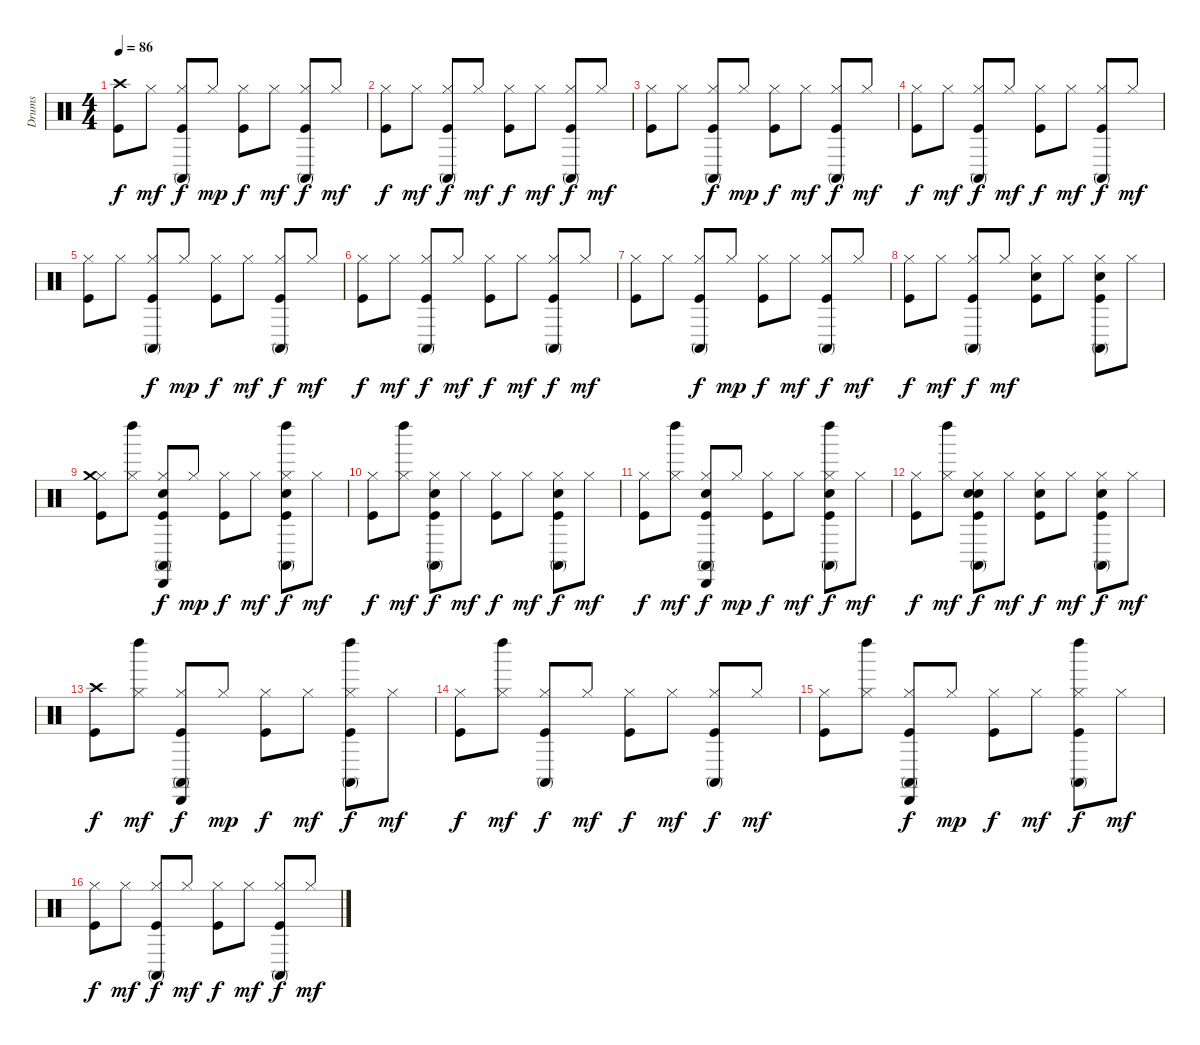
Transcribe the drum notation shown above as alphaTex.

\track ("Drums" "Drums") {instrument percussion}
\staff {score}
\articulation defaults
\ts (4 4)
\tempo 86
\clef neutral
\ks c
("Crash high (hit)" "Kick (hit)").8{dy f} "Hi-Hat (closed)".8{dy mf} ("Conga high (mute)" "Hi-Hat (closed)" "Kick (hit)").8{dy f} "Hi-Hat (closed)".8{dy mp} ("Hi-Hat (closed)" "Kick (hit)").8{dy f} "Hi-Hat (closed)".8{dy mf} ("Conga high (mute)" "Hi-Hat (closed)" "Kick (hit)").8{dy f} "Hi-Hat (closed)".8{dy mf} |
("Hi-Hat (closed)" "Kick (hit)").8{dy f} "Hi-Hat (closed)".8{dy mf} ("Conga high (mute)" "Hi-Hat (closed)" "Kick (hit)").8{dy f} "Hi-Hat (closed)".8{dy mf} ("Hi-Hat (closed)" "Kick (hit)").8{dy f} "Hi-Hat (closed)".8{dy mf} ("Conga high (mute)" "Hi-Hat (closed)" "Kick (hit)").8{dy f} "Hi-Hat (closed)".8{dy mf} |
("Hi-Hat (closed)" "Kick (hit)").8 "Hi-Hat (closed)".8 ("Conga high (mute)" "Hi-Hat (closed)" "Kick (hit)").8{dy f} "Hi-Hat (closed)".8{dy mp} ("Hi-Hat (closed)" "Kick (hit)").8{dy f} "Hi-Hat (closed)".8{dy mf} ("Conga high (mute)" "Hi-Hat (closed)" "Kick (hit)").8{dy f} "Hi-Hat (closed)".8{dy mf} |
("Hi-Hat (closed)" "Kick (hit)").8{dy f} "Hi-Hat (closed)".8{dy mf} ("Conga high (mute)" "Hi-Hat (closed)" "Kick (hit)").8{dy f} "Hi-Hat (closed)".8{dy mf} ("Hi-Hat (closed)" "Kick (hit)").8{dy f} "Hi-Hat (closed)".8{dy mf} ("Conga high (mute)" "Hi-Hat (closed)" "Kick (hit)").8{dy f} "Hi-Hat (closed)".8{dy mf} |
("Hi-Hat (closed)" "Kick (hit)").8 "Hi-Hat (closed)".8 ("Conga high (mute)" "Hi-Hat (closed)" "Kick (hit)").8{dy f} "Hi-Hat (closed)".8{dy mp} ("Hi-Hat (closed)" "Kick (hit)").8{dy f} "Hi-Hat (closed)".8{dy mf} ("Conga high (mute)" "Hi-Hat (closed)" "Kick (hit)").8{dy f} "Hi-Hat (closed)".8{dy mf} |
("Hi-Hat (closed)" "Kick (hit)").8{dy f} "Hi-Hat (closed)".8{dy mf} ("Conga high (mute)" "Hi-Hat (closed)" "Kick (hit)").8{dy f} "Hi-Hat (closed)".8{dy mf} ("Hi-Hat (closed)" "Kick (hit)").8{dy f} "Hi-Hat (closed)".8{dy mf} ("Conga high (mute)" "Hi-Hat (closed)" "Kick (hit)").8{dy f} "Hi-Hat (closed)".8{dy mf} |
("Hi-Hat (closed)" "Kick (hit)").8 "Hi-Hat (closed)".8 ("Conga high (mute)" "Hi-Hat (closed)" "Kick (hit)").8{dy f} "Hi-Hat (closed)".8{dy mp} ("Hi-Hat (closed)" "Kick (hit)").8{dy f} "Hi-Hat (closed)".8{dy mf} ("Conga high (mute)" "Hi-Hat (closed)" "Kick (hit)").8{dy f} "Hi-Hat (closed)".8{dy mf} |
("Hi-Hat (closed)" "Kick (hit)").8{dy f} "Hi-Hat (closed)".8{dy mf} ("Conga high (mute)" "Hi-Hat (closed)" "Kick (hit)").8{dy f} "Hi-Hat (closed)".8{dy mf} ("Hi-Hat (closed)" "Kick (hit)" "Snare (hit) 2").8 "Hi-Hat (closed)".8 ("Snare (hit) 2" "Conga high (mute)" "Hi-Hat (closed)" "Kick (hit)").8 "Hi-Hat (closed)".8 |
("Hi-Hat (closed)" "Crash medium (hit)" "Kick (hit)").8 ("Hi-Hat (closed)" "Left Maraca (hit)").8 ("Cabasa (hit)" "Snare (hit) 2" "Conga high (mute)" "Hi-Hat (closed)" "Kick (hit)").8{dy f} "Hi-Hat (closed)".8{dy mp} ("Hi-Hat (closed)" "Kick (hit)").8{dy f} "Hi-Hat (closed)".8{dy mf} ("Left Maraca (hit)" "Snare (hit) 2" "Conga high (mute)" "Hi-Hat (closed)" "Kick (hit)").8{dy f} "Hi-Hat (closed)".8{dy mf} |
("Hi-Hat (closed)" "Kick (hit)").8{dy f} ("Hi-Hat (closed)" "Left Maraca (hit)").8{dy mf} ("Snare (hit) 2" "Conga high (mute)" "Hi-Hat (closed)" "Kick (hit)").8{dy f} "Hi-Hat (closed)".8{dy mf} ("Hi-Hat (closed)" "Kick (hit)").8{dy f} "Hi-Hat (closed)".8{dy mf} ("Snare (hit) 2" "Conga high (mute)" "Hi-Hat (closed)" "Kick (hit)").8{dy f} "Hi-Hat (closed)".8{dy mf} |
("Hi-Hat (closed)" "Kick (hit)").8{dy f} ("Hi-Hat (closed)" "Left Maraca (hit)").8{dy mf} ("Cabasa (hit)" "Snare (hit) 2" "Conga high (mute)" "Hi-Hat (closed)" "Kick (hit)").8{dy f} "Hi-Hat (closed)".8{dy mp} ("Hi-Hat (closed)" "Kick (hit)").8{dy f} "Hi-Hat (closed)".8{dy mf} ("Left Maraca (hit)" "Snare (hit) 2" "Conga high (mute)" "Hi-Hat (closed)" "Kick (hit)").8{dy f} "Hi-Hat (closed)".8{dy mf} |
("Hi-Hat (closed)" "Kick (hit)").8{dy f} ("Hi-Hat (closed)" "Left Maraca (hit)").8{dy mf} ("Snare (hit) 2" "Conga high (mute)" "Hi-Hat (closed)" "Kick (hit)" "Snare (hit) 2").8{dy f} "Hi-Hat (closed)".8{dy mf} ("Hi-Hat (closed)" "Kick (hit)" "Snare (hit) 2").8{dy f} "Hi-Hat (closed)".8{dy mf} ("Snare (hit) 2" "Conga high (mute)" "Hi-Hat (closed)" "Kick (hit)").8{dy f} "Hi-Hat (closed)".8{dy mf} |
("Crash high (hit)" "Kick (hit)").8{dy f} ("Hi-Hat (closed)" "Left Maraca (hit)").8{dy mf} ("Cabasa (hit)" "Conga high (mute)" "Hi-Hat (closed)" "Kick (hit)").8{dy f} "Hi-Hat (closed)".8{dy mp} ("Hi-Hat (closed)" "Kick (hit)").8{dy f} "Hi-Hat (closed)".8{dy mf} ("Left Maraca (hit)" "Conga high (mute)" "Hi-Hat (closed)" "Kick (hit)").8{dy f} "Hi-Hat (closed)".8{dy mf} |
("Hi-Hat (closed)" "Kick (hit)").8{dy f} ("Hi-Hat (closed)" "Left Maraca (hit)").8{dy mf} ("Conga high (mute)" "Hi-Hat (closed)" "Kick (hit)").8{dy f} "Hi-Hat (closed)".8{dy mf} ("Hi-Hat (closed)" "Kick (hit)").8{dy f} "Hi-Hat (closed)".8{dy mf} ("Conga high (mute)" "Hi-Hat (closed)" "Kick (hit)").8{dy f} "Hi-Hat (closed)".8{dy mf} |
("Hi-Hat (closed)" "Kick (hit)").8 ("Hi-Hat (closed)" "Left Maraca (hit)").8 ("Cabasa (hit)" "Conga high (mute)" "Hi-Hat (closed)" "Kick (hit)").8{dy f} "Hi-Hat (closed)".8{dy mp} ("Hi-Hat (closed)" "Kick (hit)").8{dy f} "Hi-Hat (closed)".8{dy mf} ("Conga high (mute)" "Hi-Hat (closed)" "Kick (hit)" "Left Maraca (hit)").8{dy f} "Hi-Hat (closed)".8{dy mf} |
("Hi-Hat (closed)" "Kick (hit)").8{dy f} "Hi-Hat (closed)".8{dy mf} ("Conga high (mute)" "Hi-Hat (closed)" "Kick (hit)").8{dy f} "Hi-Hat (closed)".8{dy mf} ("Hi-Hat (closed)" "Kick (hit)").8{dy f} "Hi-Hat (closed)".8{dy mf} ("Conga high (mute)" "Hi-Hat (closed)" "Kick (hit)").8{dy f} "Hi-Hat (closed)".8{dy mf}
